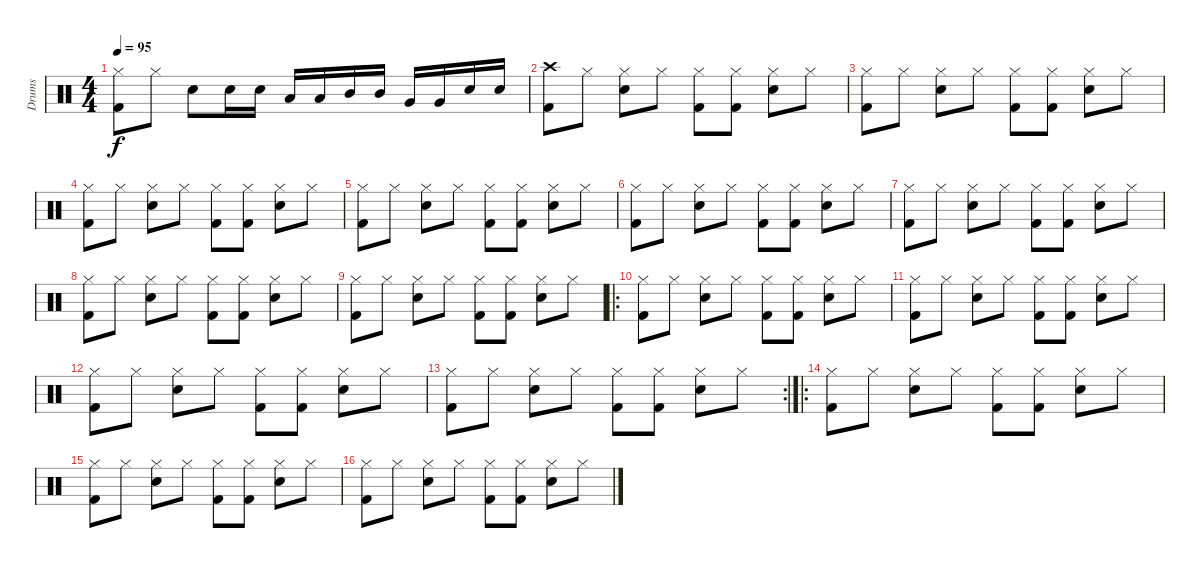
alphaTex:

\track ("Drums" "Drums") {instrument percussion}
\staff {score}
\articulation defaults
\ts (4 4)
\tempo 95
\clef neutral
\ks c
("Kick (hit) 2" "Hi-Hat (closed)").8{dy f} "Hi-Hat (closed)".8 "Electric Snare (hit)".8 "Electric Snare (hit)".16 "Electric Snare (hit)".16 "Low Tom (hit)".16 "Low Tom (hit)".16 "Mid Tom (hit)".16 "Mid Tom (hit)".16 "Very Low Tom (hit)".16 "Very Low Tom (hit)".16 "Electric Snare (hit)".16 "Electric Snare (hit)".16 |
("Kick (hit) 2" "Crash high (hit)").8 "Hi-Hat (closed)".8 ("Electric Snare (hit)" "Hi-Hat (closed)").8 "Hi-Hat (closed)".8 ("Kick (hit) 2" "Hi-Hat (closed)").8 ("Kick (hit) 2" "Hi-Hat (closed)").8 ("Electric Snare (hit)" "Hi-Hat (closed)").8 "Hi-Hat (closed)".8 |
("Kick (hit) 2" "Hi-Hat (closed)").8 "Hi-Hat (closed)".8 ("Electric Snare (hit)" "Hi-Hat (closed)").8 "Hi-Hat (closed)".8 ("Kick (hit) 2" "Hi-Hat (closed)").8 ("Kick (hit) 2" "Hi-Hat (closed)").8 ("Electric Snare (hit)" "Hi-Hat (closed)").8 "Hi-Hat (closed)".8 |
("Kick (hit) 2" "Hi-Hat (closed)").8 "Hi-Hat (closed)".8 ("Electric Snare (hit)" "Hi-Hat (closed)").8 "Hi-Hat (closed)".8 ("Kick (hit) 2" "Hi-Hat (closed)").8 ("Kick (hit) 2" "Hi-Hat (closed)").8 ("Electric Snare (hit)" "Hi-Hat (closed)").8 "Hi-Hat (closed)".8 |
("Kick (hit) 2" "Hi-Hat (closed)").8 "Hi-Hat (closed)".8 ("Electric Snare (hit)" "Hi-Hat (closed)").8 "Hi-Hat (closed)".8 ("Kick (hit) 2" "Hi-Hat (closed)").8 ("Kick (hit) 2" "Hi-Hat (closed)").8 ("Electric Snare (hit)" "Hi-Hat (closed)").8 "Hi-Hat (closed)".8 |
("Kick (hit) 2" "Hi-Hat (closed)").8 "Hi-Hat (closed)".8 ("Electric Snare (hit)" "Hi-Hat (closed)").8 "Hi-Hat (closed)".8 ("Kick (hit) 2" "Hi-Hat (closed)").8 ("Kick (hit) 2" "Hi-Hat (closed)").8 ("Electric Snare (hit)" "Hi-Hat (closed)").8 "Hi-Hat (closed)".8 |
("Kick (hit) 2" "Hi-Hat (closed)").8 "Hi-Hat (closed)".8 ("Electric Snare (hit)" "Hi-Hat (closed)").8 "Hi-Hat (closed)".8 ("Kick (hit) 2" "Hi-Hat (closed)").8 ("Kick (hit) 2" "Hi-Hat (closed)").8 ("Electric Snare (hit)" "Hi-Hat (closed)").8 "Hi-Hat (closed)".8 |
("Kick (hit) 2" "Hi-Hat (closed)").8 "Hi-Hat (closed)".8 ("Electric Snare (hit)" "Hi-Hat (closed)").8 "Hi-Hat (closed)".8 ("Kick (hit) 2" "Hi-Hat (closed)").8 ("Kick (hit) 2" "Hi-Hat (closed)").8 ("Electric Snare (hit)" "Hi-Hat (closed)").8 "Hi-Hat (closed)".8 |
("Kick (hit) 2" "Hi-Hat (closed)").8 "Hi-Hat (closed)".8 ("Electric Snare (hit)" "Hi-Hat (closed)").8 "Hi-Hat (closed)".8 ("Kick (hit) 2" "Hi-Hat (closed)").8 ("Kick (hit) 2" "Hi-Hat (closed)").8 ("Electric Snare (hit)" "Hi-Hat (closed)").8 "Hi-Hat (closed)".8 |
\ro
("Kick (hit) 2" "Hi-Hat (closed)").8 "Hi-Hat (closed)".8 ("Electric Snare (hit)" "Hi-Hat (closed)").8 "Hi-Hat (closed)".8 ("Kick (hit) 2" "Hi-Hat (closed)").8 ("Kick (hit) 2" "Hi-Hat (closed)").8 ("Electric Snare (hit)" "Hi-Hat (closed)").8 "Hi-Hat (closed)".8 |
("Kick (hit) 2" "Hi-Hat (closed)").8 "Hi-Hat (closed)".8 ("Electric Snare (hit)" "Hi-Hat (closed)").8 "Hi-Hat (closed)".8 ("Kick (hit) 2" "Hi-Hat (closed)").8 ("Kick (hit) 2" "Hi-Hat (closed)").8 ("Electric Snare (hit)" "Hi-Hat (closed)").8 "Hi-Hat (closed)".8 |
("Kick (hit) 2" "Hi-Hat (closed)").8 "Hi-Hat (closed)".8 ("Electric Snare (hit)" "Hi-Hat (closed)").8 "Hi-Hat (closed)".8 ("Kick (hit) 2" "Hi-Hat (closed)").8 ("Kick (hit) 2" "Hi-Hat (closed)").8 ("Electric Snare (hit)" "Hi-Hat (closed)").8 "Hi-Hat (closed)".8 |
\rc 2
("Kick (hit) 2" "Hi-Hat (closed)").8 "Hi-Hat (closed)".8 ("Electric Snare (hit)" "Hi-Hat (closed)").8 "Hi-Hat (closed)".8 ("Kick (hit) 2" "Hi-Hat (closed)").8 ("Kick (hit) 2" "Hi-Hat (closed)").8 ("Electric Snare (hit)" "Hi-Hat (closed)").8 "Hi-Hat (closed)".8 |
\ro
("Kick (hit) 2" "Hi-Hat (closed)").8 "Hi-Hat (closed)".8 ("Electric Snare (hit)" "Hi-Hat (closed)").8 "Hi-Hat (closed)".8 ("Kick (hit) 2" "Hi-Hat (closed)").8 ("Kick (hit) 2" "Hi-Hat (closed)").8 ("Electric Snare (hit)" "Hi-Hat (closed)").8 "Hi-Hat (closed)".8 |
("Kick (hit) 2" "Hi-Hat (closed)").8 "Hi-Hat (closed)".8 ("Electric Snare (hit)" "Hi-Hat (closed)").8 "Hi-Hat (closed)".8 ("Kick (hit) 2" "Hi-Hat (closed)").8 ("Kick (hit) 2" "Hi-Hat (closed)").8 ("Electric Snare (hit)" "Hi-Hat (closed)").8 "Hi-Hat (closed)".8 |
("Kick (hit) 2" "Hi-Hat (closed)").8 "Hi-Hat (closed)".8 ("Electric Snare (hit)" "Hi-Hat (closed)").8 "Hi-Hat (closed)".8 ("Kick (hit) 2" "Hi-Hat (closed)").8 ("Kick (hit) 2" "Hi-Hat (closed)").8 ("Electric Snare (hit)" "Hi-Hat (closed)").8 "Hi-Hat (closed)".8
